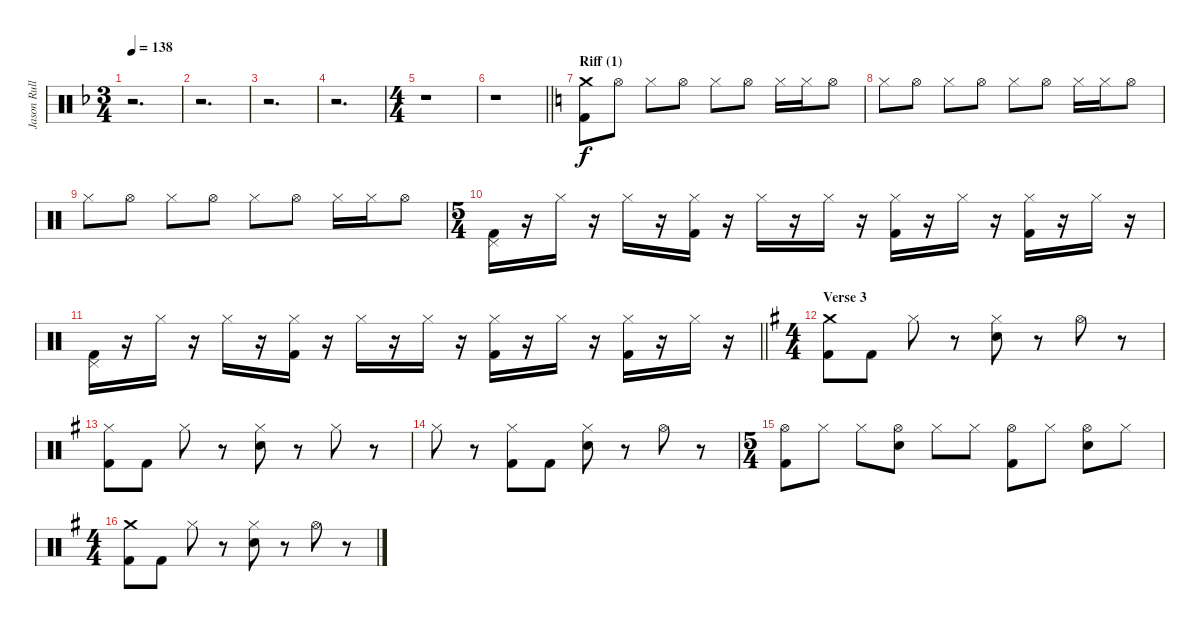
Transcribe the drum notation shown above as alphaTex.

\track ("Jason Rullo (drums)" "Jason Rull") {instrument percussion}
\staff {score}
\articulation defaults
\ts (3 4)
\tempo 138
\clef neutral
\ks dminor
r.2{d dy f} |
r.2{d} |
r.2{d} |
r.2{d} |
\ts (4 4)
r.1 |
\barLineRight lightlight
r.1 |
\section ("" "Riff (1)")
\ks aminor
("Crash medium (hit)" "Kick (hit) 2").8{volume 15 balance 8} "Hi-Hat (open)".8 "Hi-Hat (closed)".8 "Hi-Hat (open)".8 "Hi-Hat (closed)".8 "Hi-Hat (open)".8 "Hi-Hat (closed)".16 "Hi-Hat (closed)".16 "Hi-Hat (open)".8 |
"Hi-Hat (closed)".8{volume 15 balance 8} "Hi-Hat (open)".8 "Hi-Hat (closed)".8 "Hi-Hat (open)".8 "Hi-Hat (closed)".8 "Hi-Hat (open)".8 "Hi-Hat (closed)".16 "Hi-Hat (closed)".16 "Hi-Hat (open)".8 |
"Hi-Hat (closed)".8{volume 15 balance 8} "Hi-Hat (open)".8 "Hi-Hat (closed)".8 "Hi-Hat (open)".8 "Hi-Hat (closed)".8 "Hi-Hat (open)".8 "Hi-Hat (closed)".16 "Hi-Hat (closed)".16 "Hi-Hat (open)".8 |
\ts (5 4)
("Pedal Hi-Hat (hit)" "Kick (hit) 2").16 r.16 "Hi-Hat (closed)".16 r.16 "Hi-Hat (closed)".16 r.16 ("Hi-Hat (closed)" "Kick (hit) 2").16 r.16 "Hi-Hat (closed)".16 r.16 "Hi-Hat (closed)".16 r.16 ("Hi-Hat (closed)" "Kick (hit) 2").16 r.16 "Hi-Hat (closed)".16 r.16 ("Hi-Hat (closed)" "Kick (hit) 2").16 r.16 "Hi-Hat (closed)".16 r.16 |
\barLineRight lightlight
("Pedal Hi-Hat (hit)" "Kick (hit) 2").16 r.16 "Hi-Hat (closed)".16 r.16 "Hi-Hat (closed)".16 r.16 ("Hi-Hat (closed)" "Kick (hit) 2").16 r.16 "Hi-Hat (closed)".16 r.16 "Hi-Hat (closed)".16 r.16 ("Hi-Hat (closed)" "Kick (hit) 2").16 r.16 "Hi-Hat (closed)".16 r.16 ("Hi-Hat (closed)" "Kick (hit) 2").16 r.16 "Hi-Hat (closed)".16 r.16 |
\ts (4 4)
\section ("" "Verse 3")
\ks eminor
("Crash medium (hit)" "Kick (hit) 2").8 "Kick (hit) 2".8 "Hi-Hat (closed)".8 r.8 ("Hi-Hat (closed)" "Electric Snare (hit)").8 r.8 "Hi-Hat (open)".8 r.8 |
("Hi-Hat (closed)" "Kick (hit) 2").8 "Kick (hit) 2".8 "Hi-Hat (closed)".8 r.8 ("Hi-Hat (closed)" "Electric Snare (hit)").8 r.8 "Hi-Hat (closed)".8 r.8 |
"Hi-Hat (closed)".8 r.8 ("Hi-Hat (closed)" "Kick (hit) 2").8 "Kick (hit) 2".8 ("Hi-Hat (closed)" "Electric Snare (hit)").8 r.8 "Hi-Hat (open)".8 r.8 |
\ts (5 4)
("Hi-Hat (open)" "Kick (hit) 2").8 "Hi-Hat (closed)".8 "Hi-Hat (closed)".8 ("Hi-Hat (open)" "Electric Snare (hit)").8 "Hi-Hat (closed)".8 "Hi-Hat (closed)".8 ("Hi-Hat (open)" "Kick (hit) 2").8 "Hi-Hat (closed)".8 ("Hi-Hat (open)" "Electric Snare (hit)").8 "Hi-Hat (closed)".8 |
\ts (4 4)
("Crash medium (hit)" "Kick (hit) 2").8 "Kick (hit) 2".8 "Hi-Hat (closed)".8 r.8 ("Hi-Hat (closed)" "Electric Snare (hit)").8 r.8 "Hi-Hat (open)".8 r.8
